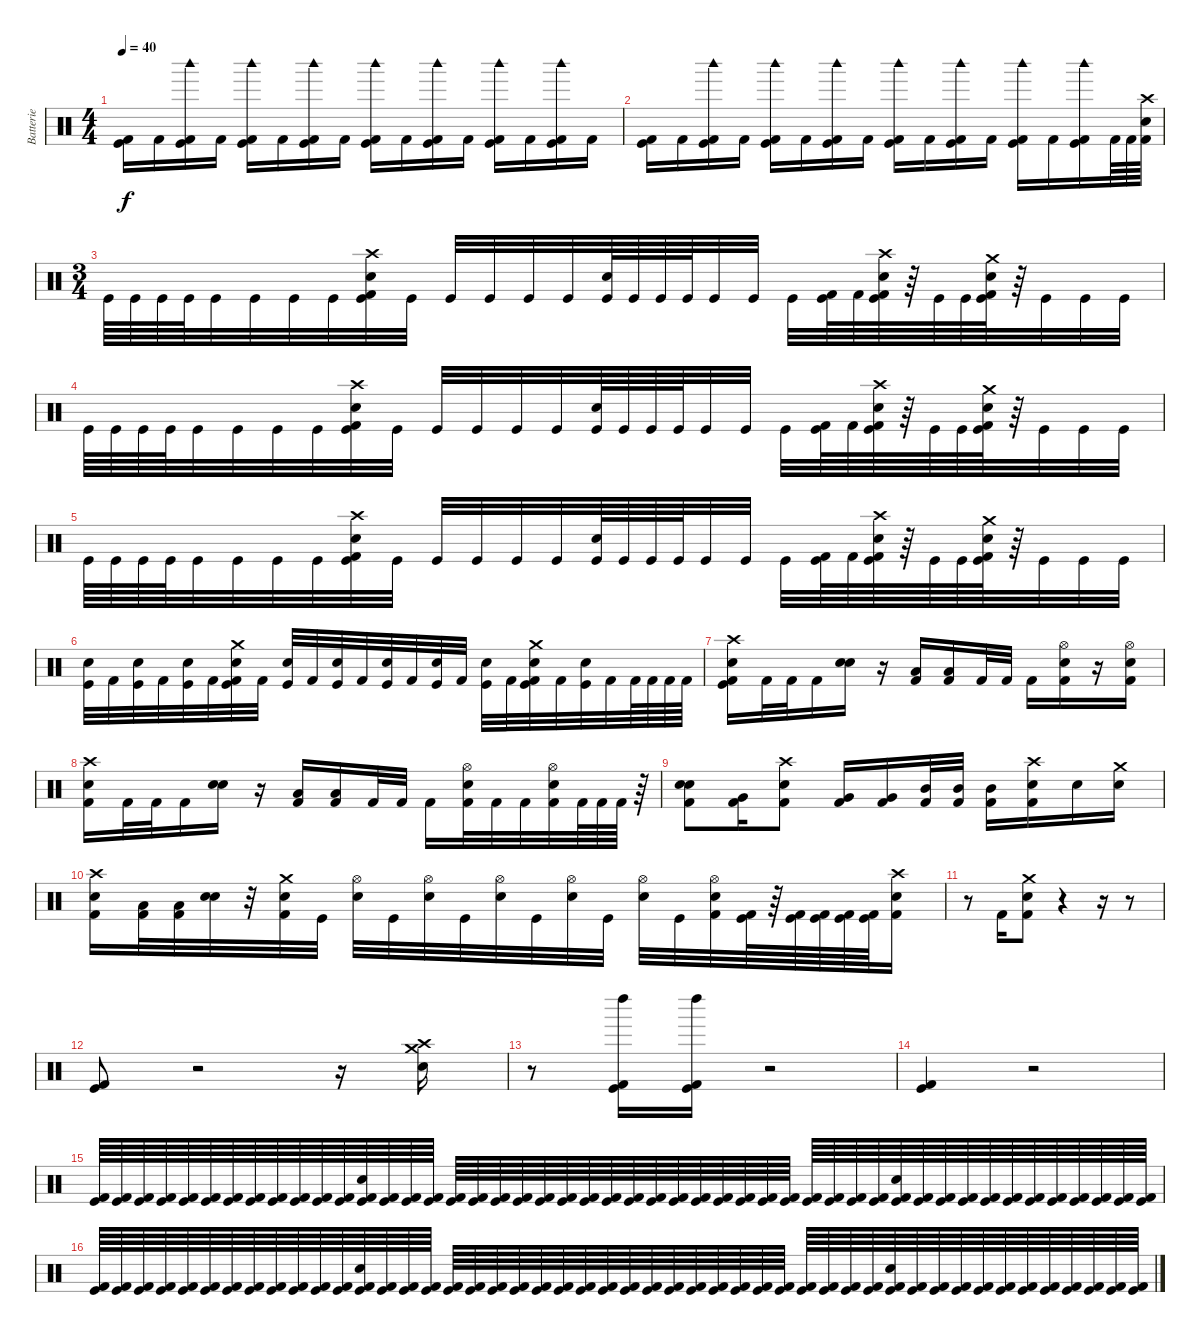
\track ("Batterie" "Batterie") {instrument percussion}
\staff {score}
\articulation defaults
\ts (4 4)
\tempo 40
\clef neutral
\ks c
("Kick (hit)" "Kick (hit) 2").16{dy f} "Kick (hit) 2".16 ("Kick (hit)" "Kick (hit) 2" "Woodblock high (hit)").16 "Kick (hit) 2".16 ("Kick (hit)" "Kick (hit) 2" "Woodblock high (hit)").16 "Kick (hit) 2".16 ("Kick (hit)" "Kick (hit) 2" "Woodblock high (hit)").16 "Kick (hit) 2".16 ("Kick (hit)" "Kick (hit) 2" "Woodblock high (hit)").16 "Kick (hit) 2".16 ("Kick (hit)" "Kick (hit) 2" "Woodblock high (hit)").16 "Kick (hit) 2".16 ("Kick (hit)" "Kick (hit) 2" "Woodblock high (hit)").16 "Kick (hit) 2".16 ("Kick (hit)" "Kick (hit) 2" "Woodblock high (hit)").16 "Kick (hit) 2".16 |
("Kick (hit)" "Kick (hit) 2").16 "Kick (hit) 2".16 ("Kick (hit)" "Kick (hit) 2" "Woodblock high (hit)").16 "Kick (hit) 2".16 ("Kick (hit)" "Kick (hit) 2" "Woodblock high (hit)").16 "Kick (hit) 2".16 ("Kick (hit)" "Kick (hit) 2" "Woodblock high (hit)").16 "Kick (hit) 2".16 ("Kick (hit)" "Kick (hit) 2" "Woodblock high (hit)").16 "Kick (hit) 2".16 ("Kick (hit)" "Kick (hit) 2" "Woodblock high (hit)").16 "Kick (hit) 2".16 ("Kick (hit)" "Kick (hit) 2" "Woodblock high (hit)").16 "Kick (hit) 2".16 ("Kick (hit)" "Kick (hit) 2" "Woodblock high (hit)").16 "Kick (hit) 2".64 "Kick (hit) 2".64 ("Kick (hit) 2" "Electric Snare (hit)" "Crash high (hit)").64 |
\ts (3 4)
"Kick (hit)".64 "Kick (hit)".64 "Kick (hit)".64 "Kick (hit)".64 "Kick (hit)".32 "Kick (hit)".32 "Kick (hit)".32 "Kick (hit)".32 ("Kick (hit)" "Kick (hit) 2" "Electric Snare (hit)" "Crash high (hit)").32 "Kick (hit)".32 "Kick (hit)".32 "Kick (hit)".32 "Kick (hit)".32 "Kick (hit)".32 ("Kick (hit)" "Electric Snare (hit)").64 "Kick (hit)".64 "Kick (hit)".64 "Kick (hit)".64 "Kick (hit)".32 "Kick (hit)".32 "Kick (hit)".32 ("Kick (hit)" "Kick (hit) 2").64 "Kick (hit) 2".64 ("Kick (hit)" "Kick (hit) 2" "Electric Snare (hit)" "Crash high (hit)").64 r.64 "Kick (hit)".64 "Kick (hit)".64 ("Kick (hit)" "Kick (hit) 2" "Electric Snare (hit)" "Crash medium (hit)").64 r.64 "Kick (hit)".32 "Kick (hit)".32 "Kick (hit)".32 |
"Kick (hit)".64 "Kick (hit)".64 "Kick (hit)".64 "Kick (hit)".64 "Kick (hit)".32 "Kick (hit)".32 "Kick (hit)".32 "Kick (hit)".32 ("Kick (hit)" "Kick (hit) 2" "Electric Snare (hit)" "Crash high (hit)").32 "Kick (hit)".32 "Kick (hit)".32 "Kick (hit)".32 "Kick (hit)".32 "Kick (hit)".32 ("Kick (hit)" "Electric Snare (hit)").64 "Kick (hit)".64 "Kick (hit)".64 "Kick (hit)".64 "Kick (hit)".32 "Kick (hit)".32 "Kick (hit)".32 ("Kick (hit)" "Kick (hit) 2").64 "Kick (hit) 2".64 ("Kick (hit)" "Kick (hit) 2" "Electric Snare (hit)" "Crash high (hit)").64 r.64 "Kick (hit)".64 "Kick (hit)".64 ("Kick (hit)" "Kick (hit) 2" "Electric Snare (hit)" "Crash medium (hit)").64 r.64 "Kick (hit)".32 "Kick (hit)".32 "Kick (hit)".32 |
"Kick (hit)".64 "Kick (hit)".64 "Kick (hit)".64 "Kick (hit)".64 "Kick (hit)".32 "Kick (hit)".32 "Kick (hit)".32 "Kick (hit)".32 ("Kick (hit)" "Kick (hit) 2" "Electric Snare (hit)" "Crash high (hit)").32 "Kick (hit)".32 "Kick (hit)".32 "Kick (hit)".32 "Kick (hit)".32 "Kick (hit)".32 ("Kick (hit)" "Electric Snare (hit)").64 "Kick (hit)".64 "Kick (hit)".64 "Kick (hit)".64 "Kick (hit)".32 "Kick (hit)".32 "Kick (hit)".32 ("Kick (hit)" "Kick (hit) 2").64 "Kick (hit) 2".64 ("Kick (hit)" "Kick (hit) 2" "Electric Snare (hit)" "Crash high (hit)").64 r.64 "Kick (hit)".64 "Kick (hit)".64 ("Kick (hit)" "Kick (hit) 2" "Electric Snare (hit)" "Crash medium (hit)").64 r.64 "Kick (hit)".32 "Kick (hit)".32 "Kick (hit)".32 |
("Kick (hit)" "Electric Snare (hit)").32 "Kick (hit) 2".32 ("Kick (hit)" "Electric Snare (hit)").32 "Kick (hit) 2".32 ("Kick (hit)" "Electric Snare (hit)").32 "Kick (hit) 2".32 ("Kick (hit)" "Kick (hit) 2" "Electric Snare (hit)" "Crash medium (hit)").32 "Kick (hit) 2".32 ("Kick (hit)" "Electric Snare (hit)").32 "Kick (hit) 2".32 ("Kick (hit)" "Electric Snare (hit)").32 "Kick (hit) 2".32 ("Kick (hit)" "Electric Snare (hit)").32 "Kick (hit) 2".32 ("Kick (hit)" "Electric Snare (hit)").32 "Kick (hit) 2".32 ("Kick (hit)" "Electric Snare (hit)").32 "Kick (hit) 2".32 ("Kick (hit)" "Kick (hit) 2" "Electric Snare (hit)" "Crash medium (hit)").32 "Kick (hit) 2".32 ("Kick (hit)" "Electric Snare (hit)").32 "Kick (hit) 2".32 "Kick (hit) 2".64 "Kick (hit) 2".64 "Kick (hit) 2".64 "Kick (hit) 2".64 |
("Kick (hit)" "Kick (hit) 2" "Electric Snare (hit)" "Crash high (hit)").16 "Kick (hit) 2".32 "Kick (hit) 2".32 "Kick (hit) 2".16 ("Snare (hit) 2" "Electric Snare (hit)").16 r.16 ("Kick (hit) 2" "Low Floor Tom (hit)").16 ("Kick (hit) 2" "Low Floor Tom (hit)").16 "Kick (hit) 2".32 "Kick (hit) 2".32 "Kick (hit) 2".16 ("Kick (hit) 2" "Electric Snare (hit)" "Hi-Hat (open)").16 r.16 ("Kick (hit) 2" "Electric Snare (hit)" "Hi-Hat (open)").16 |
("Kick (hit) 2" "Electric Snare (hit)" "Crash high (hit)").16 "Kick (hit) 2".32 "Kick (hit) 2".32 "Kick (hit) 2".16 ("Snare (hit) 2" "Electric Snare (hit)").16 r.16 ("Kick (hit) 2" "Low Floor Tom (hit)").16 ("Kick (hit) 2" "Low Floor Tom (hit)").16 "Kick (hit) 2".32 "Kick (hit) 2".32 "Kick (hit) 2".16 ("Kick (hit) 2" "Electric Snare (hit)" "Hi-Hat (open)").32 "Kick (hit) 2".32 "Kick (hit) 2".32 ("Kick (hit) 2" "Electric Snare (hit)" "Hi-Hat (open)").32 "Kick (hit) 2".64 "Kick (hit) 2".64 "Kick (hit) 2".64 r.64 |
("Kick (hit) 2" "Snare (hit) 2" "Electric Snare (hit)").8 ("Kick (hit) 2" "Very Low Tom (hit)").16 ("Kick (hit) 2" "Electric Snare (hit)" "Crash high (hit)").8 ("Kick (hit) 2" "Very Low Tom (hit)").16 ("Kick (hit) 2" "Very Low Tom (hit)").16 ("Kick (hit) 2" "Mid Tom (hit)").32 ("Kick (hit) 2" "Mid Tom (hit)").32 ("Kick (hit) 2" "Mid Tom (hit)").16 ("Kick (hit) 2" "Electric Snare (hit)" "Crash high (hit)").16 "Electric Snare (hit)".16 ("Electric Snare (hit)" "Crash medium (hit)").16 |
("Kick (hit) 2" "Electric Snare (hit)" "Crash high (hit)").16 ("Kick (hit) 2" "Low Floor Tom (hit)").32 ("Kick (hit) 2" "Low Floor Tom (hit)").32 ("Electric Snare (hit)" "Electric Snare (hit)").32 r.32 ("Kick (hit) 2" "Electric Snare (hit)" "Crash medium (hit)").32 "Kick (hit)".32 ("Electric Snare (hit)" "Hi-Hat (open)").32 "Kick (hit)".32 ("Electric Snare (hit)" "Hi-Hat (open)").32 "Kick (hit)".32 ("Electric Snare (hit)" "Hi-Hat (open)").32 "Kick (hit)".32 ("Electric Snare (hit)" "Hi-Hat (open)").32 "Kick (hit)".32 ("Electric Snare (hit)" "Hi-Hat (open)").32 "Kick (hit)".32 ("Kick (hit) 2" "Electric Snare (hit)" "Hi-Hat (open)").32 ("Kick (hit) 2" "Kick (hit)").64 r.64 ("Kick (hit) 2" "Kick (hit)").64 ("Kick (hit) 2" "Kick (hit)").64 ("Kick (hit) 2" "Kick (hit)").64 ("Kick (hit) 2" "Kick (hit)").64 ("Kick (hit) 2" "Electric Snare (hit)" "Crash high (hit)").16 |
r.8 "Kick (hit) 2".16 ("Kick (hit) 2" "Electric Snare (hit)" "Crash medium (hit)").8 r.4 r.16 r.8 |
("Kick (hit)" "Kick (hit) 2").8 r.2 r.16 ("Electric Snare (hit)" "Crash high (hit)" "Crash medium (hit)").16 |
r.8 ("Kick (hit)" "Kick (hit) 2" "Left Maraca (hit)").16 ("Kick (hit)" "Kick (hit) 2" "Left Maraca (hit)").16 r.2 |
("Kick (hit)" "Kick (hit) 2").4 r.2 |
("Kick (hit)" "Kick (hit) 2").64 ("Kick (hit)" "Kick (hit) 2").64 ("Kick (hit)" "Kick (hit) 2").64 ("Kick (hit)" "Kick (hit) 2").64 ("Kick (hit)" "Kick (hit) 2").64 ("Kick (hit)" "Kick (hit) 2").64 ("Kick (hit)" "Kick (hit) 2").64 ("Kick (hit)" "Kick (hit) 2").64 ("Kick (hit)" "Kick (hit) 2").64 ("Kick (hit)" "Kick (hit) 2").64 ("Kick (hit)" "Kick (hit) 2").64 ("Kick (hit)" "Kick (hit) 2").64 ("Kick (hit)" "Kick (hit) 2" "Electric Snare (hit)").64 ("Kick (hit)" "Kick (hit) 2").64 ("Kick (hit)" "Kick (hit) 2").64 ("Kick (hit)" "Kick (hit) 2").64 ("Kick (hit)" "Kick (hit) 2").64 ("Kick (hit)" "Kick (hit) 2").64 ("Kick (hit)" "Kick (hit) 2").64 ("Kick (hit)" "Kick (hit) 2").64 ("Kick (hit)" "Kick (hit) 2").64 ("Kick (hit)" "Kick (hit) 2").64 ("Kick (hit)" "Kick (hit) 2").64 ("Kick (hit)" "Kick (hit) 2").64 ("Kick (hit)" "Kick (hit) 2").64 ("Kick (hit)" "Kick (hit) 2").64 ("Kick (hit)" "Kick (hit) 2").64 ("Kick (hit)" "Kick (hit) 2").64 ("Kick (hit)" "Kick (hit) 2").64 ("Kick (hit)" "Kick (hit) 2").64 ("Kick (hit)" "Kick (hit) 2").64 ("Kick (hit)" "Kick (hit) 2").64 ("Kick (hit)" "Kick (hit) 2").64 ("Kick (hit)" "Kick (hit) 2").64 ("Kick (hit)" "Kick (hit) 2").64 ("Kick (hit)" "Kick (hit) 2").64 ("Kick (hit)" "Kick (hit) 2" "Electric Snare (hit)").64 ("Kick (hit)" "Kick (hit) 2").64 ("Kick (hit)" "Kick (hit) 2").64 ("Kick (hit)" "Kick (hit) 2").64 ("Kick (hit)" "Kick (hit) 2").64 ("Kick (hit)" "Kick (hit) 2").64 ("Kick (hit)" "Kick (hit) 2").64 ("Kick (hit)" "Kick (hit) 2").64 ("Kick (hit)" "Kick (hit) 2").64 ("Kick (hit)" "Kick (hit) 2").64 ("Kick (hit)" "Kick (hit) 2").64 ("Kick (hit)" "Kick (hit) 2").64 |
("Kick (hit)" "Kick (hit) 2").64 ("Kick (hit)" "Kick (hit) 2").64 ("Kick (hit)" "Kick (hit) 2").64 ("Kick (hit)" "Kick (hit) 2").64 ("Kick (hit)" "Kick (hit) 2").64 ("Kick (hit)" "Kick (hit) 2").64 ("Kick (hit)" "Kick (hit) 2").64 ("Kick (hit)" "Kick (hit) 2").64 ("Kick (hit)" "Kick (hit) 2").64 ("Kick (hit)" "Kick (hit) 2").64 ("Kick (hit)" "Kick (hit) 2").64 ("Kick (hit)" "Kick (hit) 2").64 ("Kick (hit)" "Kick (hit) 2" "Electric Snare (hit)").64 ("Kick (hit)" "Kick (hit) 2").64 ("Kick (hit)" "Kick (hit) 2").64 ("Kick (hit)" "Kick (hit) 2").64 ("Kick (hit)" "Kick (hit) 2").64 ("Kick (hit)" "Kick (hit) 2").64 ("Kick (hit)" "Kick (hit) 2").64 ("Kick (hit)" "Kick (hit) 2").64 ("Kick (hit)" "Kick (hit) 2").64 ("Kick (hit)" "Kick (hit) 2").64 ("Kick (hit)" "Kick (hit) 2").64 ("Kick (hit)" "Kick (hit) 2").64 ("Kick (hit)" "Kick (hit) 2").64 ("Kick (hit)" "Kick (hit) 2").64 ("Kick (hit)" "Kick (hit) 2").64 ("Kick (hit)" "Kick (hit) 2").64 ("Kick (hit)" "Kick (hit) 2").64 ("Kick (hit)" "Kick (hit) 2").64 ("Kick (hit)" "Kick (hit) 2").64 ("Kick (hit)" "Kick (hit) 2").64 ("Kick (hit)" "Kick (hit) 2").64 ("Kick (hit)" "Kick (hit) 2").64 ("Kick (hit)" "Kick (hit) 2").64 ("Kick (hit)" "Kick (hit) 2").64 ("Kick (hit)" "Kick (hit) 2" "Electric Snare (hit)").64 ("Kick (hit)" "Kick (hit) 2").64 ("Kick (hit)" "Kick (hit) 2").64 ("Kick (hit)" "Kick (hit) 2").64 ("Kick (hit)" "Kick (hit) 2").64 ("Kick (hit)" "Kick (hit) 2").64 ("Kick (hit)" "Kick (hit) 2").64 ("Kick (hit)" "Kick (hit) 2").64 ("Kick (hit)" "Kick (hit) 2").64 ("Kick (hit)" "Kick (hit) 2").64 ("Kick (hit)" "Kick (hit) 2").64 ("Kick (hit)" "Kick (hit) 2").64
